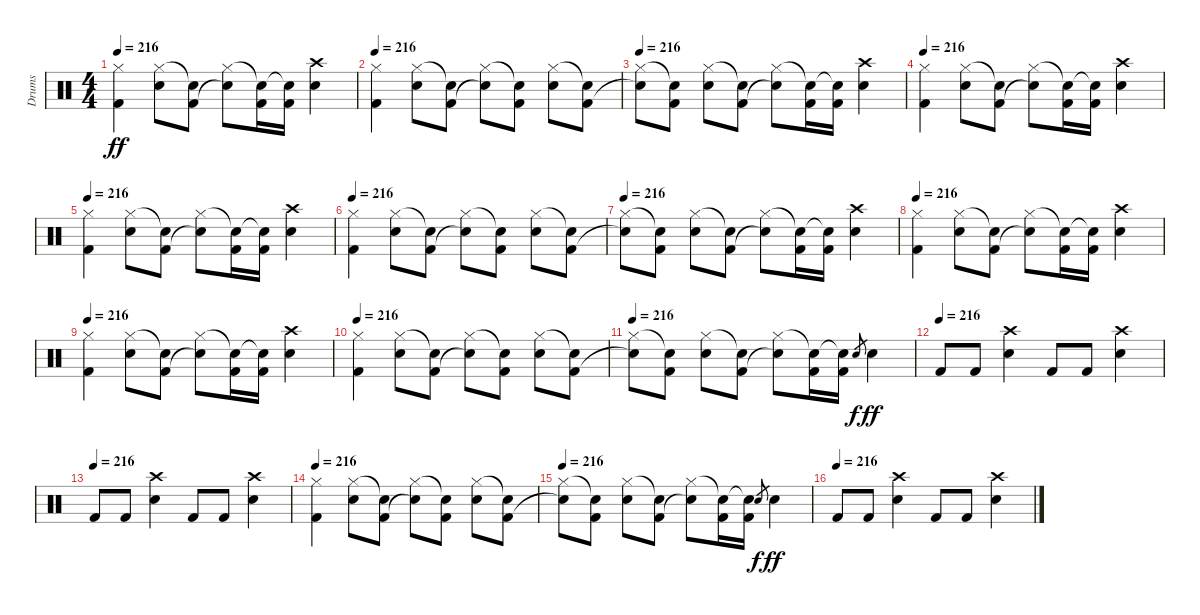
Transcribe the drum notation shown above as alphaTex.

\track ("Drums" "Drums") {instrument percussion}
\staff {score}
\articulation defaults
\ts (4 4)
\tempo 216
\clef neutral
\ks c
("Hi-Hat (closed)" "Kick (hit) 2").4{dy ff} ("Hi-Hat (closed)" "Snare (hit) 2").8 ("Snare (hit)"{t} "Kick (hit) 2").8 ("Hi-Hat (closed)" "Snare (hit)"{t}).8 ("Snare (hit)"{t} "Kick (hit) 2").16 ("Snare (hit)"{t} "Kick (hit) 2").16 ("Crash high (hit)" "Snare (hit) 2").4 |
\tempo 216
("Hi-Hat (closed)" "Kick (hit) 2").4 ("Hi-Hat (closed)" "Snare (hit) 2").8 ("Snare (hit)"{t} "Kick (hit) 2").8 ("Hi-Hat (closed)" "Snare (hit)"{t}).8 ("Snare (hit)"{t} "Kick (hit) 2").8 ("Hi-Hat (closed)" "Snare (hit) 2").8 ("Snare (hit)"{t} "Kick (hit) 2").8 |
\tempo 216
("Hi-Hat (closed)" "Snare (hit)"{t}).8 ("Snare (hit)"{t} "Kick (hit) 2").8 ("Hi-Hat (closed)" "Snare (hit) 2").8 ("Snare (hit)"{t} "Kick (hit) 2").8 ("Hi-Hat (closed)" "Snare (hit)"{t}).8 ("Snare (hit)"{t} "Kick (hit) 2").16 ("Snare (hit)"{t} "Kick (hit) 2").16 ("Crash high (hit)" "Snare (hit) 2").4 |
\tempo 216
("Hi-Hat (closed)" "Kick (hit) 2").4 ("Hi-Hat (closed)" "Snare (hit) 2").8 ("Snare (hit)"{t} "Kick (hit) 2").8 ("Hi-Hat (closed)" "Snare (hit)"{t}).8 ("Snare (hit)"{t} "Kick (hit) 2").16 ("Snare (hit)"{t} "Kick (hit) 2").16 ("Crash high (hit)" "Snare (hit) 2").4 |
\tempo 216
("Hi-Hat (closed)" "Kick (hit) 2").4 ("Hi-Hat (closed)" "Snare (hit) 2").8 ("Snare (hit)"{t} "Kick (hit) 2").8 ("Hi-Hat (closed)" "Snare (hit)"{t}).8 ("Snare (hit)"{t} "Kick (hit) 2").16 ("Snare (hit)"{t} "Kick (hit) 2").16 ("Crash high (hit)" "Snare (hit) 2").4 |
\tempo 216
("Hi-Hat (closed)" "Kick (hit) 2").4 ("Hi-Hat (closed)" "Snare (hit) 2").8 ("Snare (hit)"{t} "Kick (hit) 2").8 ("Hi-Hat (closed)" "Snare (hit)"{t}).8 ("Snare (hit)"{t} "Kick (hit) 2").8 ("Hi-Hat (closed)" "Snare (hit) 2").8 ("Snare (hit)"{t} "Kick (hit) 2").8 |
\tempo 216
("Hi-Hat (closed)" "Snare (hit)"{t}).8 ("Snare (hit)"{t} "Kick (hit) 2").8 ("Hi-Hat (closed)" "Snare (hit) 2").8 ("Snare (hit)"{t} "Kick (hit) 2").8 ("Hi-Hat (closed)" "Snare (hit)"{t}).8 ("Snare (hit)"{t} "Kick (hit) 2").16 ("Snare (hit)"{t} "Kick (hit) 2").16 ("Crash high (hit)" "Snare (hit) 2").4 |
\tempo 216
("Hi-Hat (closed)" "Kick (hit) 2").4 ("Hi-Hat (closed)" "Snare (hit) 2").8 ("Snare (hit)"{t} "Kick (hit) 2").8 ("Hi-Hat (closed)" "Snare (hit)"{t}).8 ("Snare (hit)"{t} "Kick (hit) 2").16 ("Snare (hit)"{t} "Kick (hit) 2").16 ("Crash high (hit)" "Snare (hit) 2").4 |
\tempo 216
("Hi-Hat (closed)" "Kick (hit) 2").4 ("Hi-Hat (closed)" "Snare (hit) 2").8 ("Snare (hit)"{t} "Kick (hit) 2").8 ("Hi-Hat (closed)" "Snare (hit)"{t}).8 ("Snare (hit)"{t} "Kick (hit) 2").16 ("Snare (hit)"{t} "Kick (hit) 2").16 ("Crash high (hit)" "Snare (hit) 2").4 |
\tempo 216
("Hi-Hat (closed)" "Kick (hit) 2").4 ("Hi-Hat (closed)" "Snare (hit) 2").8 ("Snare (hit)"{t} "Kick (hit) 2").8 ("Hi-Hat (closed)" "Snare (hit)"{t}).8 ("Snare (hit)"{t} "Kick (hit) 2").8 ("Hi-Hat (closed)" "Snare (hit) 2").8 ("Snare (hit)"{t} "Kick (hit) 2").8 |
\tempo 216
("Hi-Hat (closed)" "Snare (hit)"{t}).8 ("Snare (hit)"{t} "Kick (hit) 2").8 ("Hi-Hat (closed)" "Snare (hit) 2").8 ("Snare (hit)"{t} "Kick (hit) 2").8 ("Hi-Hat (closed)" "Snare (hit)"{t}).8 ("Snare (hit)"{t} "Kick (hit) 2").16 ("Snare (hit)"{t} "Kick (hit) 2").16 "Snare (hit) 2".8{gr dy f} "Snare (hit) 2".4{dy ff} |
\tempo (216)
"Kick (hit) 2".8 "Kick (hit) 2".8 ("Crash high (hit)" "Snare (hit) 2").4 "Kick (hit) 2".8 "Kick (hit) 2".8 ("Crash high (hit)" "Snare (hit) 2").4 |
\tempo (216)
"Kick (hit) 2".8 "Kick (hit) 2".8 ("Crash high (hit)" "Snare (hit) 2").4 "Kick (hit) 2".8 "Kick (hit) 2".8 ("Crash high (hit)" "Snare (hit) 2").4 |
\tempo 216
("Hi-Hat (closed)" "Kick (hit) 2").4 ("Hi-Hat (closed)" "Snare (hit) 2").8 ("Snare (hit)"{t} "Kick (hit) 2").8 ("Hi-Hat (closed)" "Snare (hit)"{t}).8 ("Snare (hit)"{t} "Kick (hit) 2").8 ("Hi-Hat (closed)" "Snare (hit) 2").8 ("Snare (hit)"{t} "Kick (hit) 2").8 |
\tempo 216
("Hi-Hat (closed)" "Snare (hit)"{t}).8 ("Snare (hit)"{t} "Kick (hit) 2").8 ("Hi-Hat (closed)" "Snare (hit) 2").8 ("Snare (hit)"{t} "Kick (hit) 2").8 ("Hi-Hat (closed)" "Snare (hit)"{t}).8 ("Snare (hit)"{t} "Kick (hit) 2").16 ("Snare (hit)"{t} "Kick (hit) 2").16 "Snare (hit) 2".8{gr dy f} "Snare (hit) 2".4{dy ff} |
\tempo (216)
"Kick (hit) 2".8 "Kick (hit) 2".8 ("Crash high (hit)" "Snare (hit) 2").4 "Kick (hit) 2".8 "Kick (hit) 2".8 ("Crash high (hit)" "Snare (hit) 2").4
